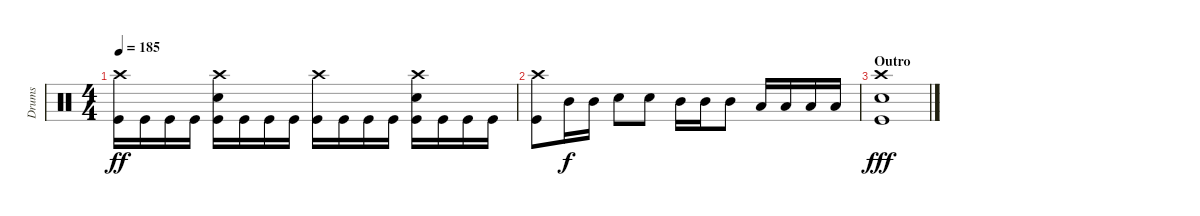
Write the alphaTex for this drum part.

\track ("Drums" "Drums") {instrument percussion}
\staff {score}
\articulation defaults
\ts (4 4)
\tempo 185
\clef neutral
\ks c
("Crash high (hit)" "Kick (hit)").16{dy ff} "Kick (hit)".16 "Kick (hit)".16 "Kick (hit)".16 ("Crash high (hit)" "Snare (hit) 2" "Kick (hit)").16 "Kick (hit)".16 "Kick (hit)".16 "Kick (hit)".16 ("Crash high (hit)" "Kick (hit)").16 "Kick (hit)".16 "Kick (hit)".16 "Kick (hit)".16 ("Crash high (hit)" "Snare (hit) 2" "Kick (hit)").16 "Kick (hit)".16 "Kick (hit)".16 "Kick (hit)".16 |
("Crash high (hit)" "Kick (hit)").8 "Mid Tom (hit)".16{dy f} "Mid Tom (hit)".16 "Snare (hit) 2".8 "Snare (hit) 2".8 "Mid Tom (hit)".16 "Mid Tom (hit)".16 "Mid Tom (hit)".8 "Low Tom (hit)".16 "Low Tom (hit)".16 "Low Tom (hit)".16 "Low Tom (hit)".16 |
\section ("" "Outro")
("Crash high (hit)" "Snare (hit) 2" "Kick (hit)").1{dy fff}
